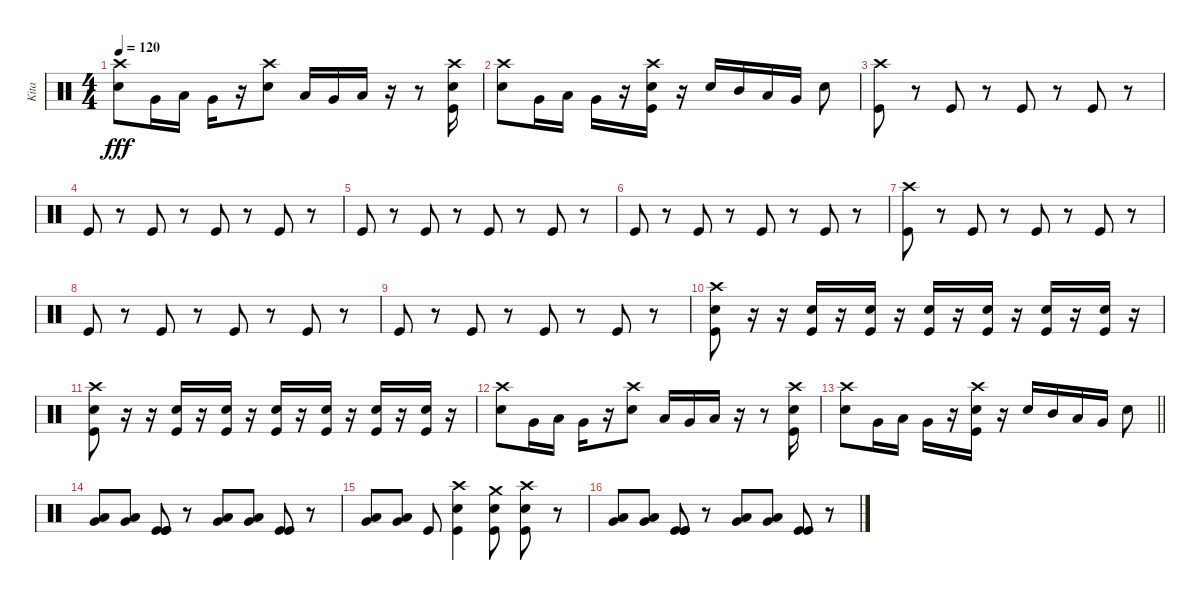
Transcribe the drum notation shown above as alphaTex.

\track ("Kita" "Kita") {instrument percussion}
\staff {score}
\articulation defaults
\ts (4 4)
\tempo 120
\clef neutral
\ks c
("Crash high (hit)" "Snare (hit) 2").8{dy fff} "Very Low Tom (hit)".16 "Low Tom (hit)".16 "Very Low Tom (hit)".16 r.16 ("Snare (hit) 2" "Crash high (hit)").8 "Low Floor Tom (hit)".16 "Very Low Tom (hit)".16 "Low Floor Tom (hit)".16 r.16 r.8 ("Kick (hit)" "Crash high (hit)" "Snare (hit) 2").16 |
("Crash high (hit)" "Snare (hit) 2").8 "Very Low Tom (hit)".16 "Low Tom (hit)".16 "Very Low Tom (hit)".16 r.16 ("Snare (hit) 2" "Kick (hit)" "Crash high (hit)").16 r.16 "Snare (hit) 2".16 "Mid Tom (hit)".16 "Low Tom (hit)".16 "Very Low Tom (hit)".16 "Snare (hit) 2".8 |
("Crash high (hit)" "Kick (hit)").8 r.8 "Kick (hit)".8 r.8 "Kick (hit)".8 r.8 "Kick (hit)".8 r.8 |
"Kick (hit)".8 r.8 "Kick (hit)".8 r.8 "Kick (hit)".8 r.8 "Kick (hit)".8 r.8 |
"Kick (hit)".8 r.8 "Kick (hit)".8 r.8 "Kick (hit)".8 r.8 "Kick (hit)".8 r.8 |
"Kick (hit)".8 r.8 "Kick (hit)".8 r.8 "Kick (hit)".8 r.8 "Kick (hit)".8 r.8 |
("Crash high (hit)" "Kick (hit)").8 r.8 "Kick (hit)".8 r.8 "Kick (hit)".8 r.8 "Kick (hit)".8 r.8 |
"Kick (hit)".8 r.8 "Kick (hit)".8 r.8 "Kick (hit)".8 r.8 "Kick (hit)".8 r.8 |
"Kick (hit)".8 r.8 "Kick (hit)".8 r.8 "Kick (hit)".8 r.8 "Kick (hit)".8 r.8 |
("Snare (hit) 2" "Kick (hit)" "Crash high (hit)").8 r.16 r.16{volume 7} ("Kick (hit)" "Snare (hit) 2").16{volume 15} r.16 ("Snare (hit) 2" "Kick (hit)").16 r.16 ("Kick (hit)" "Snare (hit) 2").16 r.16 ("Snare (hit) 2" "Kick (hit)").16 r.16 ("Kick (hit)" "Snare (hit) 2").16 r.16 ("Kick (hit)" "Snare (hit) 2").16 r.16 |
("Snare (hit) 2" "Kick (hit)" "Crash high (hit)").8 r.16 r.16{volume 7} ("Kick (hit)" "Snare (hit) 2").16{volume 15} r.16 ("Snare (hit) 2" "Kick (hit)").16 r.16 ("Kick (hit)" "Snare (hit) 2").16 r.16 ("Snare (hit) 2" "Kick (hit)").16 r.16 ("Kick (hit)" "Snare (hit) 2").16 r.16 ("Kick (hit)" "Snare (hit) 2").16 r.16 |
("Crash high (hit)" "Snare (hit) 2").8 "Very Low Tom (hit)".16 "Low Tom (hit)".16 "Very Low Tom (hit)".16 r.16 ("Snare (hit) 2" "Crash high (hit)").8 "Low Floor Tom (hit)".16 "Very Low Tom (hit)".16 "Low Floor Tom (hit)".16 r.16 r.8 ("Kick (hit)" "Crash high (hit)" "Snare (hit) 2").16 |
\barLineRight lightlight
("Crash high (hit)" "Snare (hit) 2").8 "Very Low Tom (hit)".16 "Low Tom (hit)".16 "Very Low Tom (hit)".16 r.16 ("Snare (hit) 2" "Kick (hit)" "Crash high (hit)").16 r.16 "Snare (hit) 2".16 "Mid Tom (hit)".16 "Low Tom (hit)".16 "Very Low Tom (hit)".16 "Snare (hit) 2".8 |
("Very Low Tom (hit)" "Low Floor Tom (hit)").8 ("Low Floor Tom (hit)" "Very Low Tom (hit)").8 ("Kick (hit)" "Kick (hit)" "Kick (hit)").8 r.8 ("Very Low Tom (hit)" "Low Tom (hit)").8 ("Very Low Tom (hit)" "Low Tom (hit)").8 ("Kick (hit)" "Kick (hit)").8 r.8 |
("Very Low Tom (hit)" "Low Floor Tom (hit)").8 ("Low Floor Tom (hit)" "Very Low Tom (hit)").8 "Kick (hit)".8 ("Snare (hit) 2" "Crash high (hit)" "Kick (hit)").4 ("Snare (hit) 2" "Crash medium (hit)" "Kick (hit)").8 ("Crash high (hit)" "Snare (hit) 2" "Kick (hit)").8 r.8 |
("Very Low Tom (hit)" "Low Floor Tom (hit)").8 ("Low Floor Tom (hit)" "Very Low Tom (hit)").8 ("Kick (hit)" "Kick (hit)" "Kick (hit)").8 r.8 ("Very Low Tom (hit)" "Low Tom (hit)").8 ("Very Low Tom (hit)" "Low Tom (hit)").8 ("Kick (hit)" "Kick (hit)").8 r.8
